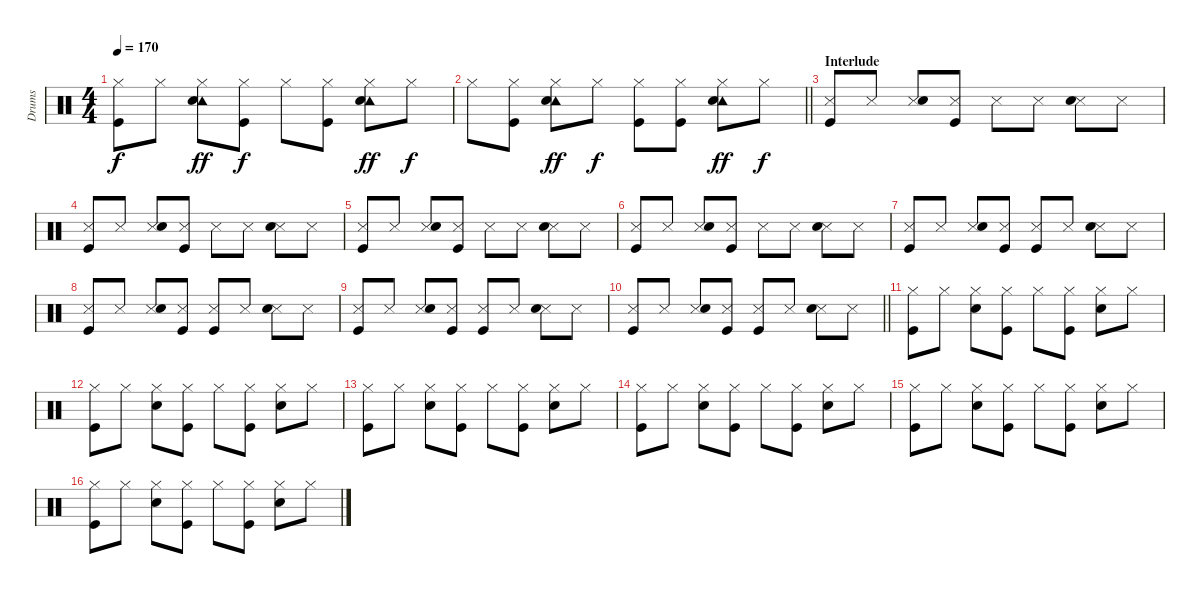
\track ("Drums" "Drums") {instrument percussion}
\staff {score}
\articulation defaults
\ts (4 4)
\tempo 170
\clef neutral
\ks c
("Hi-Hat (closed)" "Kick (hit)").8{dy f} "Hi-Hat (closed)".8 ("Tambourine (hit)" "Hi-Hat (closed)" "Snare (hit) 2").8{dy ff} ("Hi-Hat (closed)" "Kick (hit)").8{dy f} "Hi-Hat (closed)".8 ("Hi-Hat (closed)" "Kick (hit)").8 ("Tambourine (hit)" "Hi-Hat (closed)" "Snare (hit) 2").8{dy ff} "Hi-Hat (closed)".8{dy f} |
\barLineRight lightlight "Hi-Hat (closed)".8
("Hi-Hat (closed)" "Kick (hit)").8 ("Tambourine (hit)" "Hi-Hat (closed)" "Snare (hit) 2").8{dy ff} "Hi-Hat (closed)".8{dy f} ("Hi-Hat (closed)" "Kick (hit)").8 ("Hi-Hat (closed)" "Kick (hit)").8 ("Tambourine (hit)" "Hi-Hat (closed)" "Snare (hit) 2").8{dy ff} "Hi-Hat (closed)".8{dy f} |
\section ("" "Interlude")
("Snare (side stick) 3" "Kick (hit)").8 "Snare (side stick) 3".8 ("Snare (side stick) 3" "Snare (hit) 2").8 ("Snare (side stick) 3" "Kick (hit)").8 "Snare (side stick) 3".8 "Snare (side stick) 3".8 ("Snare (side stick) 3" "Snare (hit) 2").8 "Snare (side stick) 3".8 |
("Snare (side stick) 3" "Kick (hit)").8 "Snare (side stick) 3".8 ("Snare (side stick) 3" "Snare (hit) 2").8 ("Snare (side stick) 3" "Kick (hit)").8 "Snare (side stick) 3".8 "Snare (side stick) 3".8 ("Snare (side stick) 3" "Snare (hit) 2").8 "Snare (side stick) 3".8 |
("Snare (side stick) 3" "Kick (hit)").8 "Snare (side stick) 3".8 ("Snare (side stick) 3" "Snare (hit) 2").8 ("Snare (side stick) 3" "Kick (hit)").8 "Snare (side stick) 3".8 "Snare (side stick) 3".8 ("Snare (side stick) 3" "Snare (hit) 2").8 "Snare (side stick) 3".8 |
("Snare (side stick) 3" "Kick (hit)").8 "Snare (side stick) 3".8 ("Snare (side stick) 3" "Snare (hit) 2").8 ("Snare (side stick) 3" "Kick (hit)").8 "Snare (side stick) 3".8 "Snare (side stick) 3".8 ("Snare (side stick) 3" "Snare (hit) 2").8 "Snare (side stick) 3".8 |
("Snare (side stick) 3" "Kick (hit)").8 "Snare (side stick) 3".8 ("Snare (side stick) 3" "Snare (hit) 2").8 ("Snare (side stick) 3" "Kick (hit)").8 ("Snare (side stick) 3" "Kick (hit)").8 "Snare (side stick) 3".8 ("Snare (side stick) 3" "Snare (hit) 2").8 "Snare (side stick) 3".8 |
("Snare (side stick) 3" "Kick (hit)").8 "Snare (side stick) 3".8 ("Snare (side stick) 3" "Snare (hit) 2").8 ("Snare (side stick) 3" "Kick (hit)").8 ("Snare (side stick) 3" "Kick (hit)").8 "Snare (side stick) 3".8 ("Snare (side stick) 3" "Snare (hit) 2").8 "Snare (side stick) 3".8 |
("Snare (side stick) 3" "Kick (hit)").8 "Snare (side stick) 3".8 ("Snare (side stick) 3" "Snare (hit) 2").8 ("Snare (side stick) 3" "Kick (hit)").8 ("Snare (side stick) 3" "Kick (hit)").8 "Snare (side stick) 3".8 ("Snare (side stick) 3" "Snare (hit) 2").8 "Snare (side stick) 3".8 |
\barLineRight lightlight
("Snare (side stick) 3" "Kick (hit)").8 "Snare (side stick) 3".8 ("Snare (side stick) 3" "Snare (hit) 2").8 ("Snare (side stick) 3" "Kick (hit)").8 ("Snare (side stick) 3" "Kick (hit)").8 "Snare (side stick) 3".8 ("Snare (side stick) 3" "Snare (hit) 2").8 "Snare (side stick) 3".8 |
("Hi-Hat (closed)" "Kick (hit)").8 "Hi-Hat (closed)".8 ("Hi-Hat (closed)" "Snare (hit) 2").8 ("Hi-Hat (closed)" "Kick (hit)").8 "Hi-Hat (closed)".8 ("Hi-Hat (closed)" "Kick (hit)").8 ("Hi-Hat (closed)" "Snare (hit) 2").8 "Hi-Hat (closed)".8 |
("Hi-Hat (closed)" "Kick (hit)").8 "Hi-Hat (closed)".8 ("Hi-Hat (closed)" "Snare (hit) 2").8 ("Hi-Hat (closed)" "Kick (hit)").8 "Hi-Hat (closed)".8 ("Hi-Hat (closed)" "Kick (hit)").8 ("Hi-Hat (closed)" "Snare (hit) 2").8 "Hi-Hat (closed)".8 |
("Hi-Hat (closed)" "Kick (hit)").8 "Hi-Hat (closed)".8 ("Hi-Hat (closed)" "Snare (hit) 2").8 ("Hi-Hat (closed)" "Kick (hit)").8 "Hi-Hat (closed)".8 ("Hi-Hat (closed)" "Kick (hit)").8 ("Hi-Hat (closed)" "Snare (hit) 2").8 "Hi-Hat (closed)".8 |
("Hi-Hat (closed)" "Kick (hit)").8 "Hi-Hat (closed)".8 ("Hi-Hat (closed)" "Snare (hit) 2").8 ("Hi-Hat (closed)" "Kick (hit)").8 "Hi-Hat (closed)".8 ("Hi-Hat (closed)" "Kick (hit)").8 ("Hi-Hat (closed)" "Snare (hit) 2").8 "Hi-Hat (closed)".8 |
("Hi-Hat (closed)" "Kick (hit)").8 "Hi-Hat (closed)".8 ("Hi-Hat (closed)" "Snare (hit) 2").8 ("Hi-Hat (closed)" "Kick (hit)").8 "Hi-Hat (closed)".8 ("Hi-Hat (closed)" "Kick (hit)").8 ("Hi-Hat (closed)" "Snare (hit) 2").8 "Hi-Hat (closed)".8 |
("Hi-Hat (closed)" "Kick (hit)").8 "Hi-Hat (closed)".8 ("Hi-Hat (closed)" "Snare (hit) 2").8 ("Hi-Hat (closed)" "Kick (hit)").8 "Hi-Hat (closed)".8 ("Hi-Hat (closed)" "Kick (hit)").8 ("Hi-Hat (closed)" "Snare (hit) 2").8 "Hi-Hat (closed)".8
